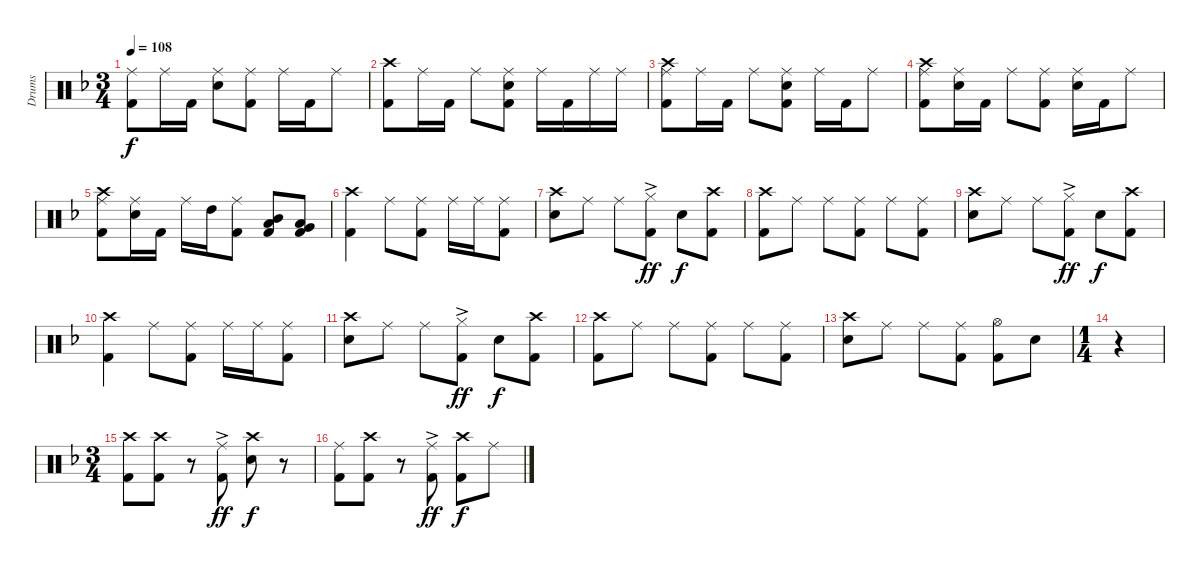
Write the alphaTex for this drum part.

\track ("Drums" "Drums") {instrument percussion}
\staff {score}
\articulation defaults
\ts (3 4)
\tempo 108
\clef neutral
\ks dminor
("Ride (middle)" "Kick (hit) 2").8{dy f} "Ride (middle)".16 "Kick (hit) 2".16 ("Ride (middle)" "Snare (hit) 2").8 ("Ride (middle)" "Kick (hit) 2").8 "Ride (middle)".16 "Kick (hit) 2".16 "Ride (middle)".8 |
("Crash high (hit)" "Kick (hit) 2").8 "Ride (middle)".16 "Kick (hit) 2".16 "Ride (middle)".8 ("Ride (middle)" "Snare (hit) 2" "Kick (hit) 2").8 "Ride (middle)".16 "Kick (hit) 2".16 "Ride (middle)".16 "Ride (middle)".16 |
("Crash high (hit)" "Ride (middle)" "Kick (hit) 2").8 "Ride (middle)".16 "Kick (hit) 2".16 "Ride (middle)".8 ("Ride (middle)" "Snare (hit) 2" "Kick (hit) 2").8 "Ride (middle)".16 "Kick (hit) 2".16 "Ride (middle)".8 |
("Crash high (hit)" "Ride (middle)" "Kick (hit) 2").8 ("Ride (middle)" "Snare (hit) 2").16 "Kick (hit) 2".16 "Ride (middle)".8 ("Ride (middle)" "Kick (hit) 2").8 ("Ride (middle)" "Snare (hit) 2").16 "Kick (hit) 2".16 "Ride (middle)".8 |
("Crash high (hit)" "Ride (middle)" "Kick (hit) 2").8 ("Ride (middle)" "Snare (hit) 2").16 "Kick (hit) 2".16 "Ride (middle)".16 "High Tom (hit)".16 ("Ride (middle)" "Kick (hit) 2").8 ("Mid Tom (hit)" "Low Tom (hit)" "Kick (hit) 2").8 ("Low Tom (hit)" "Very Low Tom (hit)" "Kick (hit) 2").8 |
("Crash high (hit)" "Kick (hit) 2").4 "Ride (middle)".8 ("Ride (middle)" "Kick (hit) 2").8 "Ride (middle)".16 "Ride (middle)".16 ("Ride (middle)" "Kick (hit) 2").8 |
("Crash high (hit)" "Snare (hit) 2").8 "Ride (middle)".8 "Ride (middle)".8 ("Hi-Hat (closed)"{ac} "Kick (hit) 2").8{dy ff} "Snare (hit) 2".8{dy f} ("Crash high (hit)" "Kick (hit) 2").8 |
("Crash high (hit)" "Kick (hit) 2").8 "Ride (middle)".8 "Ride (middle)".8 ("Ride (middle)" "Kick (hit) 2").8 "Ride (middle)".8 ("Ride (middle)" "Kick (hit) 2").8 |
("Crash high (hit)" "Snare (hit) 2").8 "Ride (middle)".8 "Ride (middle)".8 ("Hi-Hat (closed)"{ac} "Kick (hit) 2").8{dy ff} "Snare (hit) 2".8{dy f} ("Crash high (hit)" "Kick (hit) 2").8 |
("Crash high (hit)" "Kick (hit) 2").4 "Ride (middle)".8 ("Ride (middle)" "Kick (hit) 2").8 "Ride (middle)".16 "Ride (middle)".16 ("Ride (middle)" "Kick (hit) 2").8 |
("Crash high (hit)" "Snare (hit) 2").8 "Ride (middle)".8 "Ride (middle)".8 ("Hi-Hat (closed)"{ac} "Kick (hit) 2").8{dy ff} "Snare (hit) 2".8{dy f} ("Crash high (hit)" "Kick (hit) 2").8 |
("Crash high (hit)" "Kick (hit) 2").8 "Ride (middle)".8 "Ride (middle)".8 ("Ride (middle)" "Kick (hit) 2").8 "Ride (middle)".8 ("Ride (middle)" "Kick (hit) 2").8 |
("Crash high (hit)" "Snare (hit) 2").8 "Ride (middle)".8 "Ride (middle)".8 ("Ride (middle)" "Kick (hit) 2").8 ("Hi-Hat (open)" "Kick (hit) 2").8 "Snare (hit) 2".8 |
\ts (1 4)
r.4 |
\ts (3 4)
("Crash high (hit)" "Kick (hit) 2").8 ("Crash high (hit)" "Kick (hit) 2").8 r.8 ("Ride (middle)"{ac} "Kick (hit) 2").8{dy ff} ("Crash high (hit)" "Snare (hit) 2").8{dy f} r.8 |
("Ride (middle)" "Kick (hit) 2").8 ("Crash high (hit)" "Kick (hit) 2").8 r.8 ("Ride (middle)"{ac} "Kick (hit) 2").8{dy ff} ("Crash high (hit)" "Kick (hit) 2").8{dy f} "Ride (middle)".8
